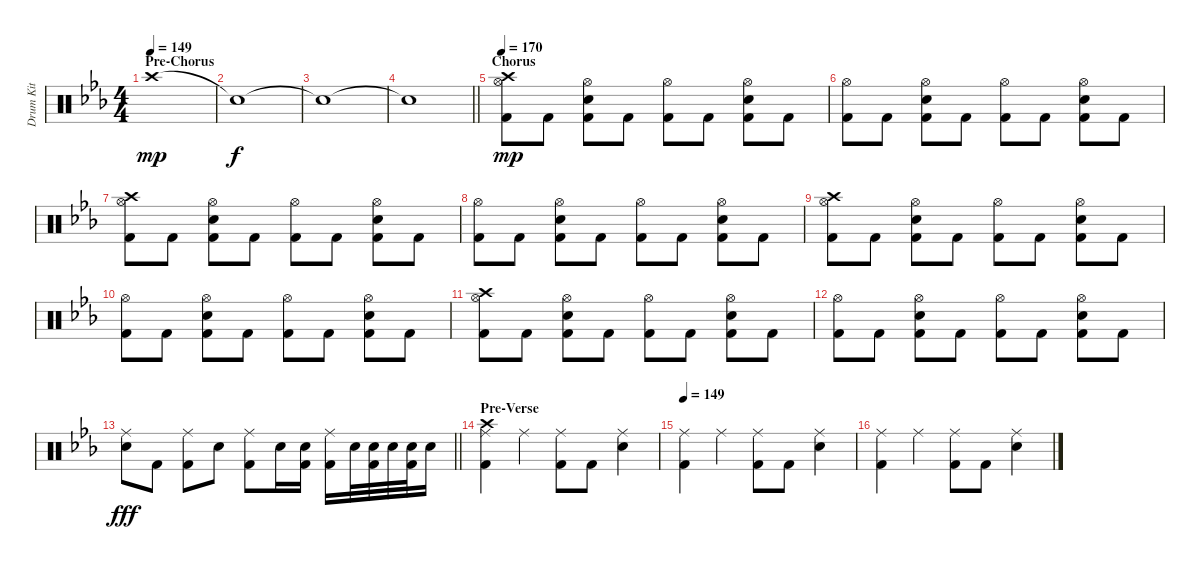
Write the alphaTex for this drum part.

\track ("Drum Kit" "Drum Kit") {instrument percussion}
\staff {score}
\articulation defaults
\ts (4 4)
\section ("" "Pre-Chorus")
\tempo 149
\clef neutral
\ks cminor "Crash high (hit)".1{dy mp}
|
"Snare (hit)"{t}.1{dy f} |
"Snare (hit)"{t}.1 |
\barLineRight lightlight "Snare (hit)"{t}.1
|
\section ("" "Chorus")
\tempo 170
("Crash high (hit)" "Hi-Hat (open)" "Kick (hit) 2").8{dy mp} "Kick (hit) 2".8 ("Hi-Hat (open)" "Electric Snare (hit)" "Kick (hit) 2").8 "Kick (hit) 2".8 ("Hi-Hat (open)" "Kick (hit) 2").8 "Kick (hit) 2".8 ("Hi-Hat (open)" "Electric Snare (hit)" "Kick (hit) 2").8 "Kick (hit) 2".8 |
("Hi-Hat (open)" "Kick (hit) 2").8 "Kick (hit) 2".8 ("Hi-Hat (open)" "Electric Snare (hit)" "Kick (hit) 2").8 "Kick (hit) 2".8 ("Hi-Hat (open)" "Kick (hit) 2").8 "Kick (hit) 2".8 ("Hi-Hat (open)" "Electric Snare (hit)" "Kick (hit) 2").8 "Kick (hit) 2".8 |
("Crash high (hit)" "Hi-Hat (open)" "Kick (hit) 2").8 "Kick (hit) 2".8 ("Hi-Hat (open)" "Electric Snare (hit)" "Kick (hit) 2").8 "Kick (hit) 2".8 ("Hi-Hat (open)" "Kick (hit) 2").8 "Kick (hit) 2".8 ("Hi-Hat (open)" "Electric Snare (hit)" "Kick (hit) 2").8 "Kick (hit) 2".8 |
("Hi-Hat (open)" "Kick (hit) 2").8 "Kick (hit) 2".8 ("Hi-Hat (open)" "Electric Snare (hit)" "Kick (hit) 2").8 "Kick (hit) 2".8 ("Hi-Hat (open)" "Kick (hit) 2").8 "Kick (hit) 2".8 ("Hi-Hat (open)" "Electric Snare (hit)" "Kick (hit) 2").8 "Kick (hit) 2".8 |
("Crash high (hit)" "Hi-Hat (open)" "Kick (hit) 2").8 "Kick (hit) 2".8 ("Hi-Hat (open)" "Electric Snare (hit)" "Kick (hit) 2").8 "Kick (hit) 2".8 ("Hi-Hat (open)" "Kick (hit) 2").8 "Kick (hit) 2".8 ("Hi-Hat (open)" "Electric Snare (hit)" "Kick (hit) 2").8 "Kick (hit) 2".8 |
("Hi-Hat (open)" "Kick (hit) 2").8 "Kick (hit) 2".8 ("Hi-Hat (open)" "Electric Snare (hit)" "Kick (hit) 2").8 "Kick (hit) 2".8 ("Hi-Hat (open)" "Kick (hit) 2").8 "Kick (hit) 2".8 ("Hi-Hat (open)" "Electric Snare (hit)" "Kick (hit) 2").8 "Kick (hit) 2".8 |
("Crash high (hit)" "Hi-Hat (open)" "Kick (hit) 2").8 "Kick (hit) 2".8 ("Hi-Hat (open)" "Electric Snare (hit)" "Kick (hit) 2").8 "Kick (hit) 2".8 ("Hi-Hat (open)" "Kick (hit) 2").8 "Kick (hit) 2".8 ("Hi-Hat (open)" "Electric Snare (hit)" "Kick (hit) 2").8 "Kick (hit) 2".8 |
("Hi-Hat (open)" "Kick (hit) 2").8 "Kick (hit) 2".8 ("Hi-Hat (open)" "Electric Snare (hit)" "Kick (hit) 2").8 "Kick (hit) 2".8 ("Hi-Hat (open)" "Kick (hit) 2").8 "Kick (hit) 2".8 ("Hi-Hat (open)" "Electric Snare (hit)" "Kick (hit) 2").8 "Kick (hit) 2".8 |
\barLineRight lightlight
("Ride (middle)" "Electric Snare (hit)").8{dy fff} "Kick (hit) 2".8 ("Ride (middle)" "Kick (hit) 2").8 "Electric Snare (hit)".8 ("Ride (middle)" "Kick (hit) 2").8 "Electric Snare (hit)".16 ("Electric Snare (hit)" "Kick (hit) 2").16 ("Ride (middle)" "Kick (hit) 2").16 "Electric Snare (hit)".32 ("Electric Snare (hit)" "Kick (hit) 2").32 "Electric Snare (hit)".32 ("Electric Snare (hit)" "Kick (hit) 2").32 "Electric Snare (hit)".16 |
\section ("" "Pre-Verse")
("Crash high (hit)" "Ride (middle)" "Kick (hit) 2").4 "Ride (middle)".4 ("Ride (middle)" "Kick (hit) 2").8 "Kick (hit) 2".8 ("Ride (middle)" "Electric Snare (hit)").4 |
\tempo 149
("Ride (middle)" "Kick (hit) 2").4 "Ride (middle)".4 ("Ride (middle)" "Kick (hit) 2").8 "Kick (hit) 2".8 ("Ride (middle)" "Electric Snare (hit)").4 |
("Ride (middle)" "Kick (hit) 2").4 "Ride (middle)".4 ("Ride (middle)" "Kick (hit) 2").8 "Kick (hit) 2".8 ("Ride (middle)" "Electric Snare (hit)").4
